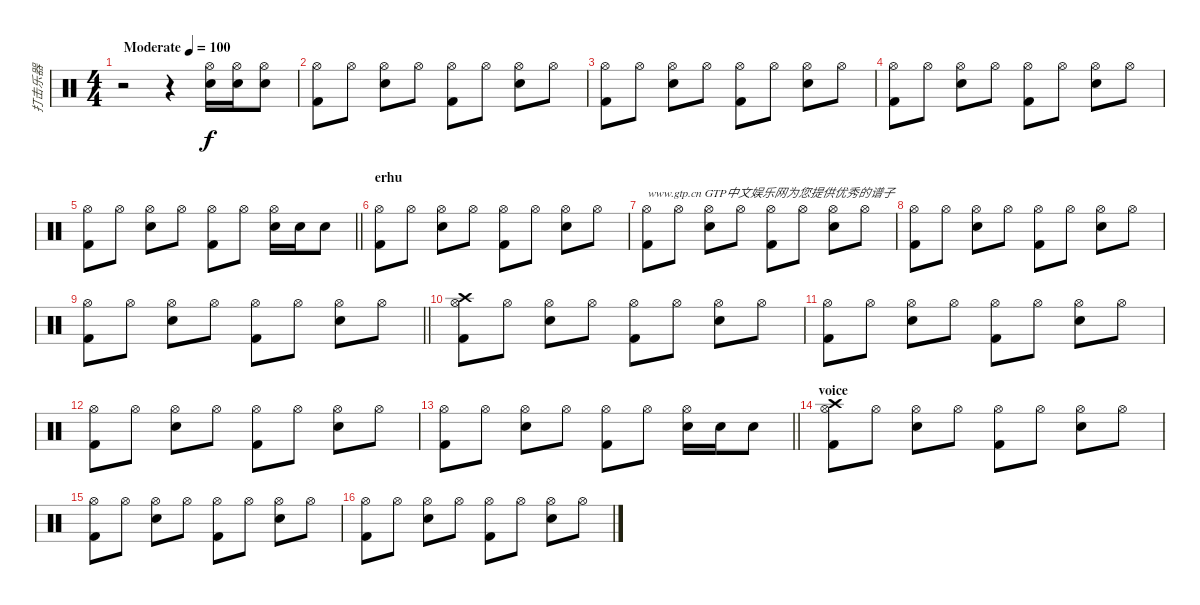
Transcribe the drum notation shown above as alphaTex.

\track ("打击乐器" "打击乐器") {instrument percussion}
\staff {score}
\articulation defaults
\ts (4 4)
\tempo (100 "Moderate")
\clef neutral
\ks c
r.2{dy f} r.4 ("Electric Snare (hit)" "Hi-Hat (open)").16 ("Electric Snare (hit)" "Hi-Hat (open)").16 ("Hi-Hat (open)" "Electric Snare (hit)").8 |
("Kick (hit) 2" "Hi-Hat (open)").8 "Hi-Hat (open)".8 ("Electric Snare (hit)" "Hi-Hat (open)").8 "Hi-Hat (open)".8 ("Kick (hit) 2" "Hi-Hat (open)").8 "Hi-Hat (open)".8 ("Electric Snare (hit)" "Hi-Hat (open)").8 "Hi-Hat (open)".8 |
("Kick (hit) 2" "Hi-Hat (open)").8 "Hi-Hat (open)".8 ("Electric Snare (hit)" "Hi-Hat (open)").8 "Hi-Hat (open)".8 ("Kick (hit) 2" "Hi-Hat (open)").8 "Hi-Hat (open)".8 ("Electric Snare (hit)" "Hi-Hat (open)").8 "Hi-Hat (open)".8 |
("Kick (hit) 2" "Hi-Hat (open)").8 "Hi-Hat (open)".8 ("Electric Snare (hit)" "Hi-Hat (open)").8 "Hi-Hat (open)".8 ("Kick (hit) 2" "Hi-Hat (open)").8 "Hi-Hat (open)".8 ("Electric Snare (hit)" "Hi-Hat (open)").8 "Hi-Hat (open)".8 |
\barLineRight lightlight
("Kick (hit) 2" "Hi-Hat (open)").8 "Hi-Hat (open)".8 ("Electric Snare (hit)" "Hi-Hat (open)").8 "Hi-Hat (open)".8 ("Kick (hit) 2" "Hi-Hat (open)").8 "Hi-Hat (open)".8 ("Electric Snare (hit)" "Hi-Hat (open)").16 "Electric Snare (hit)".16 "Electric Snare (hit)".8 |
\section ("" "erhu")
("Kick (hit) 2" "Hi-Hat (open)").8 "Hi-Hat (open)".8 ("Electric Snare (hit)" "Hi-Hat (open)").8 "Hi-Hat (open)".8 ("Kick (hit) 2" "Hi-Hat (open)").8 "Hi-Hat (open)".8 ("Electric Snare (hit)" "Hi-Hat (open)").8 "Hi-Hat (open)".8 |
("Kick (hit) 2" "Hi-Hat (open)").8{txt "www.gtp.cn GTP中文娱乐网为您提供优秀的谱子"} "Hi-Hat (open)".8 ("Electric Snare (hit)" "Hi-Hat (open)").8 "Hi-Hat (open)".8 ("Kick (hit) 2" "Hi-Hat (open)").8 "Hi-Hat (open)".8 ("Electric Snare (hit)" "Hi-Hat (open)").8 "Hi-Hat (open)".8 |
("Kick (hit) 2" "Hi-Hat (open)").8 "Hi-Hat (open)".8 ("Electric Snare (hit)" "Hi-Hat (open)").8 "Hi-Hat (open)".8 ("Kick (hit) 2" "Hi-Hat (open)").8 "Hi-Hat (open)".8 ("Electric Snare (hit)" "Hi-Hat (open)").8 "Hi-Hat (open)".8 |
\barLineRight lightlight
("Kick (hit) 2" "Hi-Hat (open)").8 "Hi-Hat (open)".8 ("Electric Snare (hit)" "Hi-Hat (open)").8 "Hi-Hat (open)".8 ("Kick (hit) 2" "Hi-Hat (open)").8 "Hi-Hat (open)".8 ("Electric Snare (hit)" "Hi-Hat (open)").8 "Hi-Hat (open)".8 |
("Kick (hit) 2" "Hi-Hat (open)" "Crash high (hit)").8 "Hi-Hat (open)".8 ("Electric Snare (hit)" "Hi-Hat (open)").8 "Hi-Hat (open)".8 ("Kick (hit) 2" "Hi-Hat (open)").8 "Hi-Hat (open)".8 ("Electric Snare (hit)" "Hi-Hat (open)").8 "Hi-Hat (open)".8 |
("Kick (hit) 2" "Hi-Hat (open)").8 "Hi-Hat (open)".8 ("Electric Snare (hit)" "Hi-Hat (open)").8 "Hi-Hat (open)".8 ("Kick (hit) 2" "Hi-Hat (open)").8 "Hi-Hat (open)".8 ("Electric Snare (hit)" "Hi-Hat (open)").8 "Hi-Hat (open)".8 |
("Kick (hit) 2" "Hi-Hat (open)").8 "Hi-Hat (open)".8 ("Electric Snare (hit)" "Hi-Hat (open)").8 "Hi-Hat (open)".8 ("Kick (hit) 2" "Hi-Hat (open)").8 "Hi-Hat (open)".8 ("Electric Snare (hit)" "Hi-Hat (open)").8 "Hi-Hat (open)".8 |
\barLineRight lightlight
("Kick (hit) 2" "Hi-Hat (open)").8 "Hi-Hat (open)".8 ("Electric Snare (hit)" "Hi-Hat (open)").8 "Hi-Hat (open)".8 ("Kick (hit) 2" "Hi-Hat (open)").8 "Hi-Hat (open)".8 ("Electric Snare (hit)" "Hi-Hat (open)").16 "Electric Snare (hit)".16 "Electric Snare (hit)".8 |
\section ("" "voice")
("Kick (hit) 2" "Hi-Hat (open)" "Crash high (hit)").8 "Hi-Hat (open)".8 ("Electric Snare (hit)" "Hi-Hat (open)").8 "Hi-Hat (open)".8 ("Kick (hit) 2" "Hi-Hat (open)").8 "Hi-Hat (open)".8 ("Electric Snare (hit)" "Hi-Hat (open)").8 "Hi-Hat (open)".8 |
("Kick (hit) 2" "Hi-Hat (open)").8 "Hi-Hat (open)".8 ("Electric Snare (hit)" "Hi-Hat (open)").8 "Hi-Hat (open)".8 ("Kick (hit) 2" "Hi-Hat (open)").8 "Hi-Hat (open)".8 ("Electric Snare (hit)" "Hi-Hat (open)").8 "Hi-Hat (open)".8 |
("Kick (hit) 2" "Hi-Hat (open)").8 "Hi-Hat (open)".8 ("Electric Snare (hit)" "Hi-Hat (open)").8 "Hi-Hat (open)".8 ("Kick (hit) 2" "Hi-Hat (open)").8 "Hi-Hat (open)".8 ("Electric Snare (hit)" "Hi-Hat (open)").8 "Hi-Hat (open)".8
